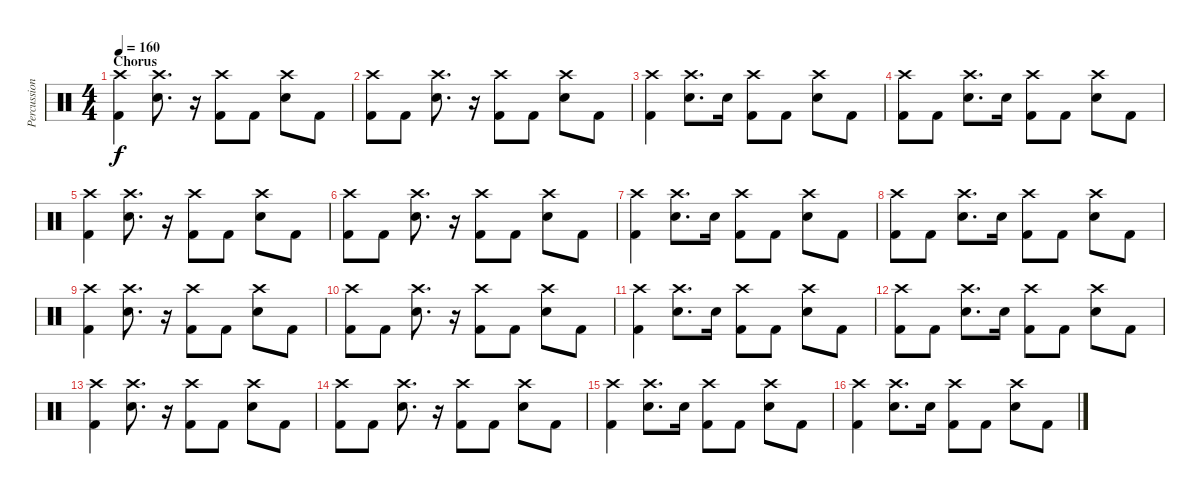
\track ("Percussion" "Percussion") {instrument percussion}
\staff {score}
\articulation defaults
\ts (4 4)
\section ("" "Chorus")
\tempo 160
\clef neutral
\ks c
("Crash high (hit)" "Kick (hit) 2").4{dy f} ("Crash high (hit)" "Electric Snare (hit)").8{d} r.16 ("Crash high (hit)" "Kick (hit) 2").8 "Kick (hit) 2".8 ("Crash high (hit)" "Electric Snare (hit)").8 "Kick (hit) 2".8 |
("Crash high (hit)" "Kick (hit) 2").8 "Kick (hit) 2".8 ("Crash high (hit)" "Electric Snare (hit)").8{d} r.16 ("Crash high (hit)" "Kick (hit) 2").8 "Kick (hit) 2".8 ("Crash high (hit)" "Electric Snare (hit)").8 "Kick (hit) 2".8 |
("Crash high (hit)" "Kick (hit) 2").4 ("Crash high (hit)" "Electric Snare (hit)").8{d} "Electric Snare (hit)".16 ("Crash high (hit)" "Kick (hit) 2").8 "Kick (hit) 2".8 ("Crash high (hit)" "Electric Snare (hit)").8 "Kick (hit) 2".8 |
("Crash high (hit)" "Kick (hit) 2").8 "Kick (hit) 2".8 ("Crash high (hit)" "Electric Snare (hit)").8{d} "Electric Snare (hit)".16 ("Crash high (hit)" "Kick (hit) 2").8 "Kick (hit) 2".8 ("Crash high (hit)" "Electric Snare (hit)").8 "Kick (hit) 2".8 |
("Crash high (hit)" "Kick (hit) 2").4 ("Crash high (hit)" "Electric Snare (hit)").8{d} r.16 ("Crash high (hit)" "Kick (hit) 2").8 "Kick (hit) 2".8 ("Crash high (hit)" "Electric Snare (hit)").8 "Kick (hit) 2".8 |
("Crash high (hit)" "Kick (hit) 2").8 "Kick (hit) 2".8 ("Crash high (hit)" "Electric Snare (hit)").8{d} r.16 ("Crash high (hit)" "Kick (hit) 2").8 "Kick (hit) 2".8 ("Crash high (hit)" "Electric Snare (hit)").8 "Kick (hit) 2".8 |
("Crash high (hit)" "Kick (hit) 2").4 ("Crash high (hit)" "Electric Snare (hit)").8{d} "Electric Snare (hit)".16 ("Crash high (hit)" "Kick (hit) 2").8 "Kick (hit) 2".8 ("Crash high (hit)" "Electric Snare (hit)").8 "Kick (hit) 2".8 |
("Crash high (hit)" "Kick (hit) 2").8 "Kick (hit) 2".8 ("Crash high (hit)" "Electric Snare (hit)").8{d} "Electric Snare (hit)".16 ("Crash high (hit)" "Kick (hit) 2").8 "Kick (hit) 2".8 ("Crash high (hit)" "Electric Snare (hit)").8 "Kick (hit) 2".8 |
("Crash high (hit)" "Kick (hit) 2").4 ("Crash high (hit)" "Electric Snare (hit)").8{d} r.16 ("Crash high (hit)" "Kick (hit) 2").8 "Kick (hit) 2".8 ("Crash high (hit)" "Electric Snare (hit)").8 "Kick (hit) 2".8 |
("Crash high (hit)" "Kick (hit) 2").8 "Kick (hit) 2".8 ("Crash high (hit)" "Electric Snare (hit)").8{d} r.16 ("Crash high (hit)" "Kick (hit) 2").8 "Kick (hit) 2".8 ("Crash high (hit)" "Electric Snare (hit)").8 "Kick (hit) 2".8 |
("Crash high (hit)" "Kick (hit) 2").4 ("Crash high (hit)" "Electric Snare (hit)").8{d} "Electric Snare (hit)".16 ("Crash high (hit)" "Kick (hit) 2").8 "Kick (hit) 2".8 ("Crash high (hit)" "Electric Snare (hit)").8 "Kick (hit) 2".8 |
("Crash high (hit)" "Kick (hit) 2").8 "Kick (hit) 2".8 ("Crash high (hit)" "Electric Snare (hit)").8{d} "Electric Snare (hit)".16 ("Crash high (hit)" "Kick (hit) 2").8 "Kick (hit) 2".8 ("Crash high (hit)" "Electric Snare (hit)").8 "Kick (hit) 2".8 |
("Crash high (hit)" "Kick (hit) 2").4 ("Crash high (hit)" "Electric Snare (hit)").8{d} r.16 ("Crash high (hit)" "Kick (hit) 2").8 "Kick (hit) 2".8 ("Crash high (hit)" "Electric Snare (hit)").8 "Kick (hit) 2".8 |
("Crash high (hit)" "Kick (hit) 2").8 "Kick (hit) 2".8 ("Crash high (hit)" "Electric Snare (hit)").8{d} r.16 ("Crash high (hit)" "Kick (hit) 2").8 "Kick (hit) 2".8 ("Crash high (hit)" "Electric Snare (hit)").8 "Kick (hit) 2".8 |
("Crash high (hit)" "Kick (hit) 2").4 ("Crash high (hit)" "Electric Snare (hit)").8{d} "Electric Snare (hit)".16 ("Crash high (hit)" "Kick (hit) 2").8 "Kick (hit) 2".8 ("Crash high (hit)" "Electric Snare (hit)").8 "Kick (hit) 2".8 |
("Crash high (hit)" "Kick (hit) 2").4 ("Crash high (hit)" "Electric Snare (hit)").8{d} "Electric Snare (hit)".16 ("Crash high (hit)" "Kick (hit) 2").8 "Kick (hit) 2".8 ("Crash high (hit)" "Electric Snare (hit)").8 "Kick (hit) 2".8
